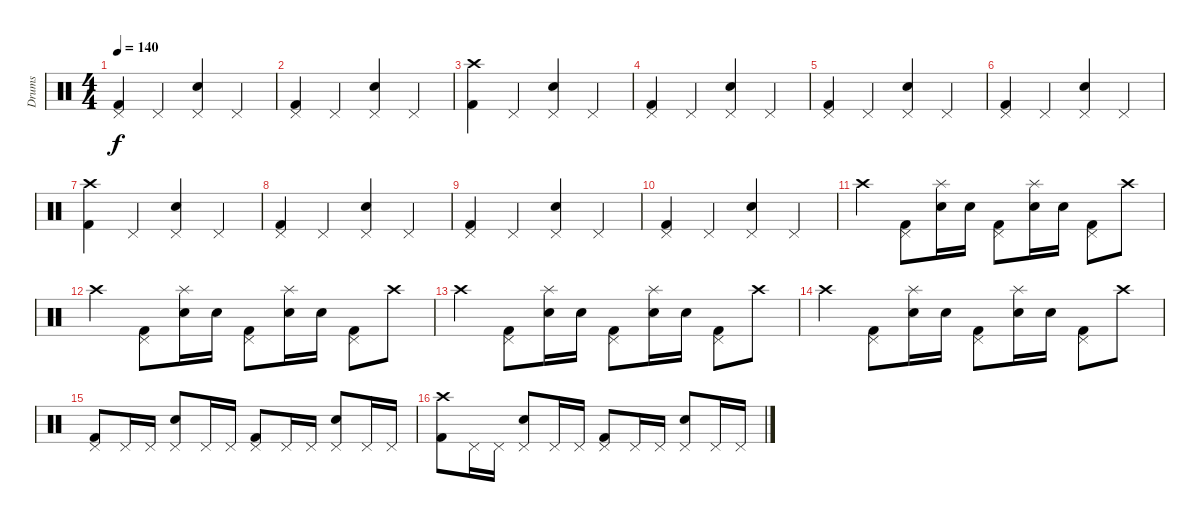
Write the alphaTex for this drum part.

\track ("Drums" "Drums") {instrument percussion}
\staff {score}
\articulation defaults
\ts (4 4)
\tempo 140
\clef neutral
\ks c
("Pedal Hi-Hat (hit)" "Kick (hit) 2").4{dy f} "Pedal Hi-Hat (hit)".4 ("Pedal Hi-Hat (hit)" "Snare (hit) 2").4 "Pedal Hi-Hat (hit)".4 |
("Pedal Hi-Hat (hit)" "Kick (hit) 2").4 "Pedal Hi-Hat (hit)".4 ("Pedal Hi-Hat (hit)" "Snare (hit) 2").4 "Pedal Hi-Hat (hit)".4 |
("Crash high (hit)" "Kick (hit) 2").4 "Pedal Hi-Hat (hit)".4 ("Pedal Hi-Hat (hit)" "Snare (hit) 2").4 "Pedal Hi-Hat (hit)".4 |
("Pedal Hi-Hat (hit)" "Kick (hit) 2").4 "Pedal Hi-Hat (hit)".4 ("Pedal Hi-Hat (hit)" "Snare (hit) 2").4 "Pedal Hi-Hat (hit)".4 |
("Pedal Hi-Hat (hit)" "Kick (hit) 2").4 "Pedal Hi-Hat (hit)".4 ("Pedal Hi-Hat (hit)" "Snare (hit) 2").4 "Pedal Hi-Hat (hit)".4 |
("Pedal Hi-Hat (hit)" "Kick (hit) 2").4 "Pedal Hi-Hat (hit)".4 ("Pedal Hi-Hat (hit)" "Snare (hit) 2").4 "Pedal Hi-Hat (hit)".4 |
("Crash high (hit)" "Kick (hit) 2").4 "Pedal Hi-Hat (hit)".4 ("Pedal Hi-Hat (hit)" "Snare (hit) 2").4 "Pedal Hi-Hat (hit)".4 |
("Pedal Hi-Hat (hit)" "Kick (hit) 2").4 "Pedal Hi-Hat (hit)".4 ("Pedal Hi-Hat (hit)" "Snare (hit) 2").4 "Pedal Hi-Hat (hit)".4 |
("Pedal Hi-Hat (hit)" "Kick (hit) 2").4 "Pedal Hi-Hat (hit)".4 ("Pedal Hi-Hat (hit)" "Snare (hit) 2").4 "Pedal Hi-Hat (hit)".4 |
("Pedal Hi-Hat (hit)" "Kick (hit) 2").4 "Pedal Hi-Hat (hit)".4 ("Pedal Hi-Hat (hit)" "Snare (hit) 2").4 "Pedal Hi-Hat (hit)".4 |
"Crash high (hit)".4 ("Pedal Hi-Hat (hit)" "Kick (hit) 2").8 ("Splash (hit)" "Snare (hit) 2").16 "Snare (hit) 2".16 ("Pedal Hi-Hat (hit)" "Kick (hit) 2").8 ("Splash (hit)" "Snare (hit) 2").16 "Snare (hit) 2".16 ("Pedal Hi-Hat (hit)" "Kick (hit) 2").8 "Crash high (hit)".8 |
"Crash high (hit)".4 ("Pedal Hi-Hat (hit)" "Kick (hit) 2").8 ("Splash (hit)" "Snare (hit) 2").16 "Snare (hit) 2".16 ("Pedal Hi-Hat (hit)" "Kick (hit) 2").8 ("Splash (hit)" "Snare (hit) 2").16 "Snare (hit) 2".16 ("Pedal Hi-Hat (hit)" "Kick (hit) 2").8 "Crash high (hit)".8 |
"Crash high (hit)".4 ("Pedal Hi-Hat (hit)" "Kick (hit) 2").8 ("Splash (hit)" "Snare (hit) 2").16 "Snare (hit) 2".16 ("Pedal Hi-Hat (hit)" "Kick (hit) 2").8 ("Splash (hit)" "Snare (hit) 2").16 "Snare (hit) 2".16 ("Pedal Hi-Hat (hit)" "Kick (hit) 2").8 "Crash high (hit)".8 |
"Crash high (hit)".4 ("Pedal Hi-Hat (hit)" "Kick (hit) 2").8 ("Splash (hit)" "Snare (hit) 2").16 "Snare (hit) 2".16 ("Pedal Hi-Hat (hit)" "Kick (hit) 2").8 ("Splash (hit)" "Snare (hit) 2").16 "Snare (hit) 2".16 ("Pedal Hi-Hat (hit)" "Kick (hit) 2").8 "Crash high (hit)".8 |
("Pedal Hi-Hat (hit)" "Kick (hit) 2").8 "Pedal Hi-Hat (hit)".16 "Pedal Hi-Hat (hit)".16 ("Pedal Hi-Hat (hit)" "Snare (hit) 2").8 "Pedal Hi-Hat (hit)".16 "Pedal Hi-Hat (hit)".16 ("Pedal Hi-Hat (hit)" "Kick (hit) 2").8 "Pedal Hi-Hat (hit)".16 "Pedal Hi-Hat (hit)".16 ("Pedal Hi-Hat (hit)" "Snare (hit) 2").8 "Pedal Hi-Hat (hit)".16 "Pedal Hi-Hat (hit)".16 |
("Crash high (hit)" "Kick (hit) 2").8 "Pedal Hi-Hat (hit)".16 "Pedal Hi-Hat (hit)".16 ("Pedal Hi-Hat (hit)" "Snare (hit) 2").8 "Pedal Hi-Hat (hit)".16 "Pedal Hi-Hat (hit)".16 ("Pedal Hi-Hat (hit)" "Kick (hit) 2").8 "Pedal Hi-Hat (hit)".16 "Pedal Hi-Hat (hit)".16 ("Pedal Hi-Hat (hit)" "Snare (hit) 2").8 "Pedal Hi-Hat (hit)".16 "Pedal Hi-Hat (hit)".16
